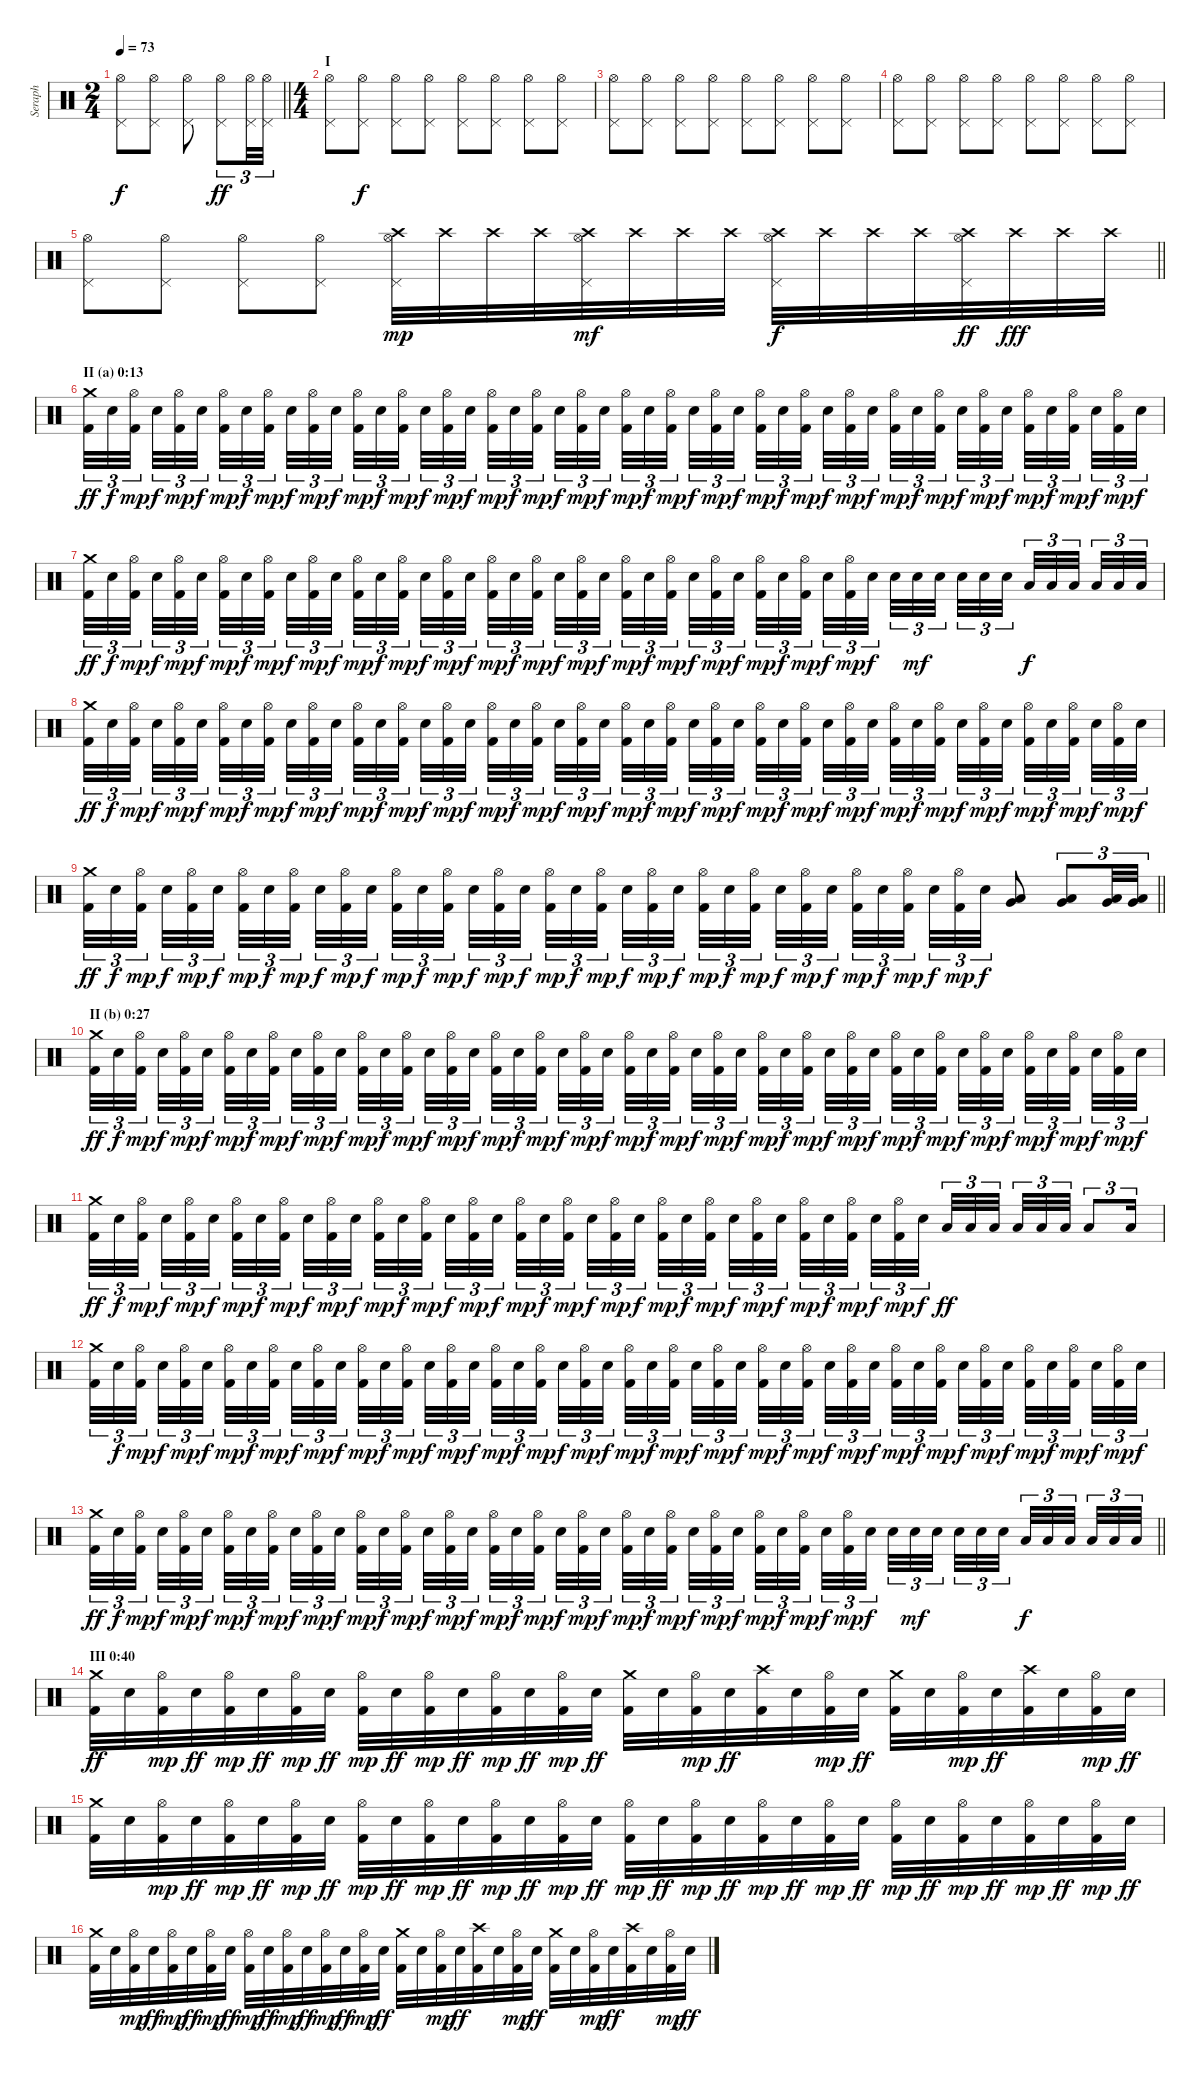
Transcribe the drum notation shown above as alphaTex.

\track ("Seraph" "Seraph") {instrument percussion}
\staff {score}
\articulation defaults
\ts (2 4)
\tempo 73
\clef neutral
\barLineRight lightlight
\ks c
("Pedal Hi-Hat (hit)" "Hi-Hat (open)").8{dy f} ("Pedal Hi-Hat (hit)" "Hi-Hat (open)").8 ("Pedal Hi-Hat (hit)" "Hi-Hat (open)").8 ("Pedal Hi-Hat (hit)" "Hi-Hat (open)").8{tu (3 2) dy ff} ("Pedal Hi-Hat (hit)" "Hi-Hat (open)").32{tu (3 2)} ("Pedal Hi-Hat (hit)" "Hi-Hat (open)").32{tu (3 2)} |
\ts (4 4)
\section ("" "I")
("Pedal Hi-Hat (hit)" "Hi-Hat (open)").8 ("Pedal Hi-Hat (hit)" "Hi-Hat (open)").8{dy f} ("Pedal Hi-Hat (hit)" "Hi-Hat (open)").8 ("Pedal Hi-Hat (hit)" "Hi-Hat (open)").8 ("Pedal Hi-Hat (hit)" "Hi-Hat (open)").8 ("Pedal Hi-Hat (hit)" "Hi-Hat (open)").8 ("Pedal Hi-Hat (hit)" "Hi-Hat (open)").8 ("Pedal Hi-Hat (hit)" "Hi-Hat (open)").8 |
("Pedal Hi-Hat (hit)" "Hi-Hat (open)").8 ("Pedal Hi-Hat (hit)" "Hi-Hat (open)").8 ("Pedal Hi-Hat (hit)" "Hi-Hat (open)").8 ("Pedal Hi-Hat (hit)" "Hi-Hat (open)").8 ("Pedal Hi-Hat (hit)" "Hi-Hat (open)").8 ("Pedal Hi-Hat (hit)" "Hi-Hat (open)").8 ("Pedal Hi-Hat (hit)" "Hi-Hat (open)").8 ("Pedal Hi-Hat (hit)" "Hi-Hat (open)").8 |
("Pedal Hi-Hat (hit)" "Hi-Hat (open)").8 ("Pedal Hi-Hat (hit)" "Hi-Hat (open)").8 ("Pedal Hi-Hat (hit)" "Hi-Hat (open)").8 ("Pedal Hi-Hat (hit)" "Hi-Hat (open)").8 ("Pedal Hi-Hat (hit)" "Hi-Hat (open)").8 ("Pedal Hi-Hat (hit)" "Hi-Hat (open)").8 ("Pedal Hi-Hat (hit)" "Hi-Hat (open)").8 ("Pedal Hi-Hat (hit)" "Hi-Hat (open)").8 |
\barLineRight lightlight
("Pedal Hi-Hat (hit)" "Hi-Hat (open)").8 ("Pedal Hi-Hat (hit)" "Hi-Hat (open)").8 ("Pedal Hi-Hat (hit)" "Hi-Hat (open)").8 ("Pedal Hi-Hat (hit)" "Hi-Hat (open)").8 ("Pedal Hi-Hat (hit)" "Hi-Hat (open)" "Crash high (hit)").32{dy mp} "Crash high (hit)".32 "Crash high (hit)".32 "Crash high (hit)".32 ("Pedal Hi-Hat (hit)" "Hi-Hat (open)" "Crash high (hit)").32{dy mf} "Crash high (hit)".32 "Crash high (hit)".32 "Crash high (hit)".32 ("Pedal Hi-Hat (hit)" "Hi-Hat (open)" "Crash high (hit)").32{dy f} "Crash high (hit)".32 "Crash high (hit)".32 "Crash high (hit)".32 ("Pedal Hi-Hat (hit)" "Hi-Hat (open)" "Crash high (hit)").32{dy ff} "Crash high (hit)".32{dy fff} "Crash high (hit)".32 "Crash high (hit)".32 |
\section ("" "II (a) 0:13")
("Kick (hit) 2" "Crash medium (hit)").32{tu (3 2) dy ff} "Electric Snare (hit)".32{tu (3 2) dy f} ("Kick (hit) 2" "Hi-Hat (open)").32{tu (3 2) dy mp beam splitsecondary} "Electric Snare (hit)".32{tu (3 2) dy f} ("Kick (hit) 2" "Hi-Hat (open)").32{tu (3 2) dy mp} "Electric Snare (hit)".32{tu (3 2) dy f beam splitsecondary} ("Kick (hit) 2" "Hi-Hat (open)").32{tu (3 2) dy mp} "Electric Snare (hit)".32{tu (3 2) dy f} ("Kick (hit) 2" "Hi-Hat (open)").32{tu (3 2) dy mp beam splitsecondary} "Electric Snare (hit)".32{tu (3 2) dy f} ("Kick (hit) 2" "Hi-Hat (open)").32{tu (3 2) dy mp} "Electric Snare (hit)".32{tu (3 2) dy f} ("Kick (hit) 2" "Hi-Hat (open)").32{tu (3 2) dy mp} "Electric Snare (hit)".32{tu (3 2) dy f} ("Kick (hit) 2" "Hi-Hat (open)").32{tu (3 2) dy mp beam splitsecondary} "Electric Snare (hit)".32{tu (3 2) dy f} ("Kick (hit) 2" "Hi-Hat (open)").32{tu (3 2) dy mp} "Electric Snare (hit)".32{tu (3 2) dy f beam splitsecondary} ("Kick (hit) 2" "Hi-Hat (open)").32{tu (3 2) dy mp} "Electric Snare (hit)".32{tu (3 2) dy f} ("Kick (hit) 2" "Hi-Hat (open)").32{tu (3 2) dy mp beam splitsecondary} "Electric Snare (hit)".32{tu (3 2) dy f} ("Kick (hit) 2" "Hi-Hat (open)").32{tu (3 2) dy mp} "Electric Snare (hit)".32{tu (3 2) dy f} ("Kick (hit) 2" "Hi-Hat (open)").32{tu (3 2) dy mp} "Electric Snare (hit)".32{tu (3 2) dy f} ("Kick (hit) 2" "Hi-Hat (open)").32{tu (3 2) dy mp beam splitsecondary} "Electric Snare (hit)".32{tu (3 2) dy f} ("Kick (hit) 2" "Hi-Hat (open)").32{tu (3 2) dy mp} "Electric Snare (hit)".32{tu (3 2) dy f beam splitsecondary} ("Kick (hit) 2" "Hi-Hat (open)").32{tu (3 2) dy mp} "Electric Snare (hit)".32{tu (3 2) dy f} ("Kick (hit) 2" "Hi-Hat (open)").32{tu (3 2) dy mp beam splitsecondary} "Electric Snare (hit)".32{tu (3 2) dy f} ("Kick (hit) 2" "Hi-Hat (open)").32{tu (3 2) dy mp} "Electric Snare (hit)".32{tu (3 2) dy f} ("Kick (hit) 2" "Hi-Hat (open)").32{tu (3 2) dy mp} "Electric Snare (hit)".32{tu (3 2) dy f} ("Kick (hit) 2" "Hi-Hat (open)").32{tu (3 2) dy mp beam splitsecondary} "Electric Snare (hit)".32{tu (3 2) dy f} ("Kick (hit) 2" "Hi-Hat (open)").32{tu (3 2) dy mp} "Electric Snare (hit)".32{tu (3 2) dy f beam splitsecondary} ("Kick (hit) 2" "Hi-Hat (open)").32{tu (3 2) dy mp} "Electric Snare (hit)".32{tu (3 2) dy f} ("Kick (hit) 2" "Hi-Hat (open)").32{tu (3 2) dy mp beam splitsecondary} "Electric Snare (hit)".32{tu (3 2) dy f} ("Kick (hit) 2" "Hi-Hat (open)").32{tu (3 2) dy mp} "Electric Snare (hit)".32{tu (3 2) dy f} |
("Kick (hit) 2" "Crash medium (hit)").32{tu (3 2) dy ff} "Electric Snare (hit)".32{tu (3 2) dy f} ("Kick (hit) 2" "Hi-Hat (open)").32{tu (3 2) dy mp beam splitsecondary} "Electric Snare (hit)".32{tu (3 2) dy f} ("Kick (hit) 2" "Hi-Hat (open)").32{tu (3 2) dy mp} "Electric Snare (hit)".32{tu (3 2) dy f beam splitsecondary} ("Kick (hit) 2" "Hi-Hat (open)").32{tu (3 2) dy mp} "Electric Snare (hit)".32{tu (3 2) dy f} ("Kick (hit) 2" "Hi-Hat (open)").32{tu (3 2) dy mp beam splitsecondary} "Electric Snare (hit)".32{tu (3 2) dy f} ("Kick (hit) 2" "Hi-Hat (open)").32{tu (3 2) dy mp} "Electric Snare (hit)".32{tu (3 2) dy f} ("Kick (hit) 2" "Hi-Hat (open)").32{tu (3 2) dy mp} "Electric Snare (hit)".32{tu (3 2) dy f} ("Kick (hit) 2" "Hi-Hat (open)").32{tu (3 2) dy mp beam splitsecondary} "Electric Snare (hit)".32{tu (3 2) dy f} ("Kick (hit) 2" "Hi-Hat (open)").32{tu (3 2) dy mp} "Electric Snare (hit)".32{tu (3 2) dy f beam splitsecondary} ("Kick (hit) 2" "Hi-Hat (open)").32{tu (3 2) dy mp} "Electric Snare (hit)".32{tu (3 2) dy f} ("Kick (hit) 2" "Hi-Hat (open)").32{tu (3 2) dy mp beam splitsecondary} "Electric Snare (hit)".32{tu (3 2) dy f} ("Kick (hit) 2" "Hi-Hat (open)").32{tu (3 2) dy mp} "Electric Snare (hit)".32{tu (3 2) dy f} ("Kick (hit) 2" "Hi-Hat (open)").32{tu (3 2) dy mp} "Electric Snare (hit)".32{tu (3 2) dy f} ("Kick (hit) 2" "Hi-Hat (open)").32{tu (3 2) dy mp beam splitsecondary} "Electric Snare (hit)".32{tu (3 2) dy f} ("Kick (hit) 2" "Hi-Hat (open)").32{tu (3 2) dy mp} "Electric Snare (hit)".32{tu (3 2) dy f beam splitsecondary} ("Kick (hit) 2" "Hi-Hat (open)").32{tu (3 2) dy mp} "Electric Snare (hit)".32{tu (3 2) dy f} ("Kick (hit) 2" "Hi-Hat (open)").32{tu (3 2) dy mp beam splitsecondary} "Electric Snare (hit)".32{tu (3 2) dy f} ("Kick (hit) 2" "Hi-Hat (open)").32{tu (3 2) dy mp} "Electric Snare (hit)".32{tu (3 2) dy f} "Electric Snare (hit)".32{tu (3 2)} "Electric Snare (hit)".32{tu (3 2) dy mf} "Electric Snare (hit)".32{tu (3 2) beam splitsecondary} "Electric Snare (hit)".32{tu (3 2)} "Electric Snare (hit)".32{tu (3 2)} "Electric Snare (hit)".32{tu (3 2) beam splitsecondary} "Low Tom (hit)".32{tu (3 2) dy f} "Low Tom (hit)".32{tu (3 2)} "Low Tom (hit)".32{tu (3 2) beam splitsecondary} "Low Tom (hit)".32{tu (3 2)} "Low Tom (hit)".32{tu (3 2)} "Low Tom (hit)".32{tu (3 2)} |
("Kick (hit) 2" "Crash medium (hit)").32{tu (3 2) dy ff} "Electric Snare (hit)".32{tu (3 2) dy f} ("Kick (hit) 2" "Hi-Hat (open)").32{tu (3 2) dy mp beam splitsecondary} "Electric Snare (hit)".32{tu (3 2) dy f} ("Kick (hit) 2" "Hi-Hat (open)").32{tu (3 2) dy mp} "Electric Snare (hit)".32{tu (3 2) dy f beam splitsecondary} ("Kick (hit) 2" "Hi-Hat (open)").32{tu (3 2) dy mp} "Electric Snare (hit)".32{tu (3 2) dy f} ("Kick (hit) 2" "Hi-Hat (open)").32{tu (3 2) dy mp beam splitsecondary} "Electric Snare (hit)".32{tu (3 2) dy f} ("Kick (hit) 2" "Hi-Hat (open)").32{tu (3 2) dy mp} "Electric Snare (hit)".32{tu (3 2) dy f} ("Kick (hit) 2" "Hi-Hat (open)").32{tu (3 2) dy mp} "Electric Snare (hit)".32{tu (3 2) dy f} ("Kick (hit) 2" "Hi-Hat (open)").32{tu (3 2) dy mp beam splitsecondary} "Electric Snare (hit)".32{tu (3 2) dy f} ("Kick (hit) 2" "Hi-Hat (open)").32{tu (3 2) dy mp} "Electric Snare (hit)".32{tu (3 2) dy f beam splitsecondary} ("Kick (hit) 2" "Hi-Hat (open)").32{tu (3 2) dy mp} "Electric Snare (hit)".32{tu (3 2) dy f} ("Kick (hit) 2" "Hi-Hat (open)").32{tu (3 2) dy mp beam splitsecondary} "Electric Snare (hit)".32{tu (3 2) dy f} ("Kick (hit) 2" "Hi-Hat (open)").32{tu (3 2) dy mp} "Electric Snare (hit)".32{tu (3 2) dy f} ("Kick (hit) 2" "Hi-Hat (open)").32{tu (3 2) dy mp} "Electric Snare (hit)".32{tu (3 2) dy f} ("Kick (hit) 2" "Hi-Hat (open)").32{tu (3 2) dy mp beam splitsecondary} "Electric Snare (hit)".32{tu (3 2) dy f} ("Kick (hit) 2" "Hi-Hat (open)").32{tu (3 2) dy mp} "Electric Snare (hit)".32{tu (3 2) dy f beam splitsecondary} ("Kick (hit) 2" "Hi-Hat (open)").32{tu (3 2) dy mp} "Electric Snare (hit)".32{tu (3 2) dy f} ("Kick (hit) 2" "Hi-Hat (open)").32{tu (3 2) dy mp beam splitsecondary} "Electric Snare (hit)".32{tu (3 2) dy f} ("Kick (hit) 2" "Hi-Hat (open)").32{tu (3 2) dy mp} "Electric Snare (hit)".32{tu (3 2) dy f} ("Kick (hit) 2" "Hi-Hat (open)").32{tu (3 2) dy mp} "Electric Snare (hit)".32{tu (3 2) dy f} ("Kick (hit) 2" "Hi-Hat (open)").32{tu (3 2) dy mp beam splitsecondary} "Electric Snare (hit)".32{tu (3 2) dy f} ("Kick (hit) 2" "Hi-Hat (open)").32{tu (3 2) dy mp} "Electric Snare (hit)".32{tu (3 2) dy f beam splitsecondary} ("Kick (hit) 2" "Hi-Hat (open)").32{tu (3 2) dy mp} "Electric Snare (hit)".32{tu (3 2) dy f} ("Kick (hit) 2" "Hi-Hat (open)").32{tu (3 2) dy mp beam splitsecondary} "Electric Snare (hit)".32{tu (3 2) dy f} ("Kick (hit) 2" "Hi-Hat (open)").32{tu (3 2) dy mp} "Electric Snare (hit)".32{tu (3 2) dy f} |
\barLineRight lightlight
("Kick (hit) 2" "Crash medium (hit)").32{tu (3 2) dy ff} "Electric Snare (hit)".32{tu (3 2) dy f} ("Kick (hit) 2" "Hi-Hat (open)").32{tu (3 2) dy mp beam splitsecondary} "Electric Snare (hit)".32{tu (3 2) dy f} ("Kick (hit) 2" "Hi-Hat (open)").32{tu (3 2) dy mp} "Electric Snare (hit)".32{tu (3 2) dy f beam splitsecondary} ("Kick (hit) 2" "Hi-Hat (open)").32{tu (3 2) dy mp} "Electric Snare (hit)".32{tu (3 2) dy f} ("Kick (hit) 2" "Hi-Hat (open)").32{tu (3 2) dy mp beam splitsecondary} "Electric Snare (hit)".32{tu (3 2) dy f} ("Kick (hit) 2" "Hi-Hat (open)").32{tu (3 2) dy mp} "Electric Snare (hit)".32{tu (3 2) dy f} ("Kick (hit) 2" "Hi-Hat (open)").32{tu (3 2) dy mp} "Electric Snare (hit)".32{tu (3 2) dy f} ("Kick (hit) 2" "Hi-Hat (open)").32{tu (3 2) dy mp beam splitsecondary} "Electric Snare (hit)".32{tu (3 2) dy f} ("Kick (hit) 2" "Hi-Hat (open)").32{tu (3 2) dy mp} "Electric Snare (hit)".32{tu (3 2) dy f beam splitsecondary} ("Kick (hit) 2" "Hi-Hat (open)").32{tu (3 2) dy mp} "Electric Snare (hit)".32{tu (3 2) dy f} ("Kick (hit) 2" "Hi-Hat (open)").32{tu (3 2) dy mp beam splitsecondary} "Electric Snare (hit)".32{tu (3 2) dy f} ("Kick (hit) 2" "Hi-Hat (open)").32{tu (3 2) dy mp} "Electric Snare (hit)".32{tu (3 2) dy f} ("Kick (hit) 2" "Hi-Hat (open)").32{tu (3 2) dy mp} "Electric Snare (hit)".32{tu (3 2) dy f} ("Kick (hit) 2" "Hi-Hat (open)").32{tu (3 2) dy mp beam splitsecondary} "Electric Snare (hit)".32{tu (3 2) dy f} ("Kick (hit) 2" "Hi-Hat (open)").32{tu (3 2) dy mp} "Electric Snare (hit)".32{tu (3 2) dy f beam splitsecondary} ("Kick (hit) 2" "Hi-Hat (open)").32{tu (3 2) dy mp} "Electric Snare (hit)".32{tu (3 2) dy f} ("Kick (hit) 2" "Hi-Hat (open)").32{tu (3 2) dy mp beam splitsecondary} "Electric Snare (hit)".32{tu (3 2) dy f} ("Kick (hit) 2" "Hi-Hat (open)").32{tu (3 2) dy mp} "Electric Snare (hit)".32{tu (3 2) dy f} ("Low Tom (hit)" "Very Low Tom (hit)").8 ("Low Tom (hit)" "Very Low Tom (hit)").8{tu (3 2)} ("Very Low Tom (hit)" "Low Floor Tom (hit)").32{tu (3 2)} ("Very Low Tom (hit)" "Low Floor Tom (hit)").32{tu (3 2)} |
\section ("" "II (b) 0:27")
("Kick (hit) 2" "Crash medium (hit)").32{tu (3 2) dy ff} "Electric Snare (hit)".32{tu (3 2) dy f} ("Kick (hit) 2" "Hi-Hat (open)").32{tu (3 2) dy mp beam splitsecondary} "Electric Snare (hit)".32{tu (3 2) dy f} ("Kick (hit) 2" "Hi-Hat (open)").32{tu (3 2) dy mp} "Electric Snare (hit)".32{tu (3 2) dy f beam splitsecondary} ("Kick (hit) 2" "Hi-Hat (open)").32{tu (3 2) dy mp} "Electric Snare (hit)".32{tu (3 2) dy f} ("Kick (hit) 2" "Hi-Hat (open)").32{tu (3 2) dy mp beam splitsecondary} "Electric Snare (hit)".32{tu (3 2) dy f} ("Kick (hit) 2" "Hi-Hat (open)").32{tu (3 2) dy mp} "Electric Snare (hit)".32{tu (3 2) dy f} ("Kick (hit) 2" "Hi-Hat (open)").32{tu (3 2) dy mp} "Electric Snare (hit)".32{tu (3 2) dy f} ("Kick (hit) 2" "Hi-Hat (open)").32{tu (3 2) dy mp beam splitsecondary} "Electric Snare (hit)".32{tu (3 2) dy f} ("Kick (hit) 2" "Hi-Hat (open)").32{tu (3 2) dy mp} "Electric Snare (hit)".32{tu (3 2) dy f beam splitsecondary} ("Kick (hit) 2" "Hi-Hat (open)").32{tu (3 2) dy mp} "Electric Snare (hit)".32{tu (3 2) dy f} ("Kick (hit) 2" "Hi-Hat (open)").32{tu (3 2) dy mp beam splitsecondary} "Electric Snare (hit)".32{tu (3 2) dy f} ("Kick (hit) 2" "Hi-Hat (open)").32{tu (3 2) dy mp} "Electric Snare (hit)".32{tu (3 2) dy f} ("Kick (hit) 2" "Hi-Hat (open)").32{tu (3 2) dy mp} "Electric Snare (hit)".32{tu (3 2) dy f} ("Kick (hit) 2" "Hi-Hat (open)").32{tu (3 2) dy mp beam splitsecondary} "Electric Snare (hit)".32{tu (3 2) dy f} ("Kick (hit) 2" "Hi-Hat (open)").32{tu (3 2) dy mp} "Electric Snare (hit)".32{tu (3 2) dy f beam splitsecondary} ("Kick (hit) 2" "Hi-Hat (open)").32{tu (3 2) dy mp} "Electric Snare (hit)".32{tu (3 2) dy f} ("Kick (hit) 2" "Hi-Hat (open)").32{tu (3 2) dy mp beam splitsecondary} "Electric Snare (hit)".32{tu (3 2) dy f} ("Kick (hit) 2" "Hi-Hat (open)").32{tu (3 2) dy mp} "Electric Snare (hit)".32{tu (3 2) dy f} ("Kick (hit) 2" "Hi-Hat (open)").32{tu (3 2) dy mp} "Electric Snare (hit)".32{tu (3 2) dy f} ("Kick (hit) 2" "Hi-Hat (open)").32{tu (3 2) dy mp beam splitsecondary} "Electric Snare (hit)".32{tu (3 2) dy f} ("Kick (hit) 2" "Hi-Hat (open)").32{tu (3 2) dy mp} "Electric Snare (hit)".32{tu (3 2) dy f beam splitsecondary} ("Kick (hit) 2" "Hi-Hat (open)").32{tu (3 2) dy mp} "Electric Snare (hit)".32{tu (3 2) dy f} ("Kick (hit) 2" "Hi-Hat (open)").32{tu (3 2) dy mp beam splitsecondary} "Electric Snare (hit)".32{tu (3 2) dy f} ("Kick (hit) 2" "Hi-Hat (open)").32{tu (3 2) dy mp} "Electric Snare (hit)".32{tu (3 2) dy f} |
("Kick (hit) 2" "Crash medium (hit)").32{tu (3 2) dy ff} "Electric Snare (hit)".32{tu (3 2) dy f} ("Kick (hit) 2" "Hi-Hat (open)").32{tu (3 2) dy mp beam splitsecondary} "Electric Snare (hit)".32{tu (3 2) dy f} ("Kick (hit) 2" "Hi-Hat (open)").32{tu (3 2) dy mp} "Electric Snare (hit)".32{tu (3 2) dy f beam splitsecondary} ("Kick (hit) 2" "Hi-Hat (open)").32{tu (3 2) dy mp} "Electric Snare (hit)".32{tu (3 2) dy f} ("Kick (hit) 2" "Hi-Hat (open)").32{tu (3 2) dy mp beam splitsecondary} "Electric Snare (hit)".32{tu (3 2) dy f} ("Kick (hit) 2" "Hi-Hat (open)").32{tu (3 2) dy mp} "Electric Snare (hit)".32{tu (3 2) dy f} ("Kick (hit) 2" "Hi-Hat (open)").32{tu (3 2) dy mp} "Electric Snare (hit)".32{tu (3 2) dy f} ("Kick (hit) 2" "Hi-Hat (open)").32{tu (3 2) dy mp beam splitsecondary} "Electric Snare (hit)".32{tu (3 2) dy f} ("Kick (hit) 2" "Hi-Hat (open)").32{tu (3 2) dy mp} "Electric Snare (hit)".32{tu (3 2) dy f beam splitsecondary} ("Kick (hit) 2" "Hi-Hat (open)").32{tu (3 2) dy mp} "Electric Snare (hit)".32{tu (3 2) dy f} ("Kick (hit) 2" "Hi-Hat (open)").32{tu (3 2) dy mp beam splitsecondary} "Electric Snare (hit)".32{tu (3 2) dy f} ("Kick (hit) 2" "Hi-Hat (open)").32{tu (3 2) dy mp} "Electric Snare (hit)".32{tu (3 2) dy f} ("Kick (hit) 2" "Hi-Hat (open)").32{tu (3 2) dy mp} "Electric Snare (hit)".32{tu (3 2) dy f} ("Kick (hit) 2" "Hi-Hat (open)").32{tu (3 2) dy mp beam splitsecondary} "Electric Snare (hit)".32{tu (3 2) dy f} ("Kick (hit) 2" "Hi-Hat (open)").32{tu (3 2) dy mp} "Electric Snare (hit)".32{tu (3 2) dy f beam splitsecondary} ("Kick (hit) 2" "Hi-Hat (open)").32{tu (3 2) dy mp} "Electric Snare (hit)".32{tu (3 2) dy f} ("Kick (hit) 2" "Hi-Hat (open)").32{tu (3 2) dy mp beam splitsecondary} "Electric Snare (hit)".32{tu (3 2) dy f} ("Kick (hit) 2" "Hi-Hat (open)").32{tu (3 2) dy mp} "Electric Snare (hit)".32{tu (3 2) dy f} "Low Tom (hit)".32{tu (3 2) dy ff} "Low Tom (hit)".32{tu (3 2)} "Low Tom (hit)".32{tu (3 2) beam splitsecondary} "Low Tom (hit)".32{tu (3 2)} "Low Tom (hit)".32{tu (3 2)} "Low Tom (hit)".32{tu (3 2)} "Low Floor Tom (hit)".8{tu (3 2)} "Low Tom (hit)".16{tu (3 2)} |
("Kick (hit) 2" "Crash medium (hit)").32{tu (3 2)} "Electric Snare (hit)".32{tu (3 2) dy f} ("Kick (hit) 2" "Hi-Hat (open)").32{tu (3 2) dy mp beam splitsecondary} "Electric Snare (hit)".32{tu (3 2) dy f} ("Kick (hit) 2" "Hi-Hat (open)").32{tu (3 2) dy mp} "Electric Snare (hit)".32{tu (3 2) dy f beam splitsecondary} ("Kick (hit) 2" "Hi-Hat (open)").32{tu (3 2) dy mp} "Electric Snare (hit)".32{tu (3 2) dy f} ("Kick (hit) 2" "Hi-Hat (open)").32{tu (3 2) dy mp beam splitsecondary} "Electric Snare (hit)".32{tu (3 2) dy f} ("Kick (hit) 2" "Hi-Hat (open)").32{tu (3 2) dy mp} "Electric Snare (hit)".32{tu (3 2) dy f} ("Kick (hit) 2" "Hi-Hat (open)").32{tu (3 2) dy mp} "Electric Snare (hit)".32{tu (3 2) dy f} ("Kick (hit) 2" "Hi-Hat (open)").32{tu (3 2) dy mp beam splitsecondary} "Electric Snare (hit)".32{tu (3 2) dy f} ("Kick (hit) 2" "Hi-Hat (open)").32{tu (3 2) dy mp} "Electric Snare (hit)".32{tu (3 2) dy f beam splitsecondary} ("Kick (hit) 2" "Hi-Hat (open)").32{tu (3 2) dy mp} "Electric Snare (hit)".32{tu (3 2) dy f} ("Kick (hit) 2" "Hi-Hat (open)").32{tu (3 2) dy mp beam splitsecondary} "Electric Snare (hit)".32{tu (3 2) dy f} ("Kick (hit) 2" "Hi-Hat (open)").32{tu (3 2) dy mp} "Electric Snare (hit)".32{tu (3 2) dy f} ("Kick (hit) 2" "Hi-Hat (open)").32{tu (3 2) dy mp} "Electric Snare (hit)".32{tu (3 2) dy f} ("Kick (hit) 2" "Hi-Hat (open)").32{tu (3 2) dy mp beam splitsecondary} "Electric Snare (hit)".32{tu (3 2) dy f} ("Kick (hit) 2" "Hi-Hat (open)").32{tu (3 2) dy mp} "Electric Snare (hit)".32{tu (3 2) dy f beam splitsecondary} ("Kick (hit) 2" "Hi-Hat (open)").32{tu (3 2) dy mp} "Electric Snare (hit)".32{tu (3 2) dy f} ("Kick (hit) 2" "Hi-Hat (open)").32{tu (3 2) dy mp beam splitsecondary} "Electric Snare (hit)".32{tu (3 2) dy f} ("Kick (hit) 2" "Hi-Hat (open)").32{tu (3 2) dy mp} "Electric Snare (hit)".32{tu (3 2) dy f} ("Kick (hit) 2" "Hi-Hat (open)").32{tu (3 2) dy mp} "Electric Snare (hit)".32{tu (3 2) dy f} ("Kick (hit) 2" "Hi-Hat (open)").32{tu (3 2) dy mp beam splitsecondary} "Electric Snare (hit)".32{tu (3 2) dy f} ("Kick (hit) 2" "Hi-Hat (open)").32{tu (3 2) dy mp} "Electric Snare (hit)".32{tu (3 2) dy f beam splitsecondary} ("Kick (hit) 2" "Hi-Hat (open)").32{tu (3 2) dy mp} "Electric Snare (hit)".32{tu (3 2) dy f} ("Kick (hit) 2" "Hi-Hat (open)").32{tu (3 2) dy mp beam splitsecondary} "Electric Snare (hit)".32{tu (3 2) dy f} ("Kick (hit) 2" "Hi-Hat (open)").32{tu (3 2) dy mp} "Electric Snare (hit)".32{tu (3 2) dy f} |
\barLineRight lightlight
("Kick (hit) 2" "Crash medium (hit)").32{tu (3 2) dy ff} "Electric Snare (hit)".32{tu (3 2) dy f} ("Kick (hit) 2" "Hi-Hat (open)").32{tu (3 2) dy mp beam splitsecondary} "Electric Snare (hit)".32{tu (3 2) dy f} ("Kick (hit) 2" "Hi-Hat (open)").32{tu (3 2) dy mp} "Electric Snare (hit)".32{tu (3 2) dy f beam splitsecondary} ("Kick (hit) 2" "Hi-Hat (open)").32{tu (3 2) dy mp} "Electric Snare (hit)".32{tu (3 2) dy f} ("Kick (hit) 2" "Hi-Hat (open)").32{tu (3 2) dy mp beam splitsecondary} "Electric Snare (hit)".32{tu (3 2) dy f} ("Kick (hit) 2" "Hi-Hat (open)").32{tu (3 2) dy mp} "Electric Snare (hit)".32{tu (3 2) dy f} ("Kick (hit) 2" "Hi-Hat (open)").32{tu (3 2) dy mp} "Electric Snare (hit)".32{tu (3 2) dy f} ("Kick (hit) 2" "Hi-Hat (open)").32{tu (3 2) dy mp beam splitsecondary} "Electric Snare (hit)".32{tu (3 2) dy f} ("Kick (hit) 2" "Hi-Hat (open)").32{tu (3 2) dy mp} "Electric Snare (hit)".32{tu (3 2) dy f beam splitsecondary} ("Kick (hit) 2" "Hi-Hat (open)").32{tu (3 2) dy mp} "Electric Snare (hit)".32{tu (3 2) dy f} ("Kick (hit) 2" "Hi-Hat (open)").32{tu (3 2) dy mp beam splitsecondary} "Electric Snare (hit)".32{tu (3 2) dy f} ("Kick (hit) 2" "Hi-Hat (open)").32{tu (3 2) dy mp} "Electric Snare (hit)".32{tu (3 2) dy f} ("Kick (hit) 2" "Hi-Hat (open)").32{tu (3 2) dy mp} "Electric Snare (hit)".32{tu (3 2) dy f} ("Kick (hit) 2" "Hi-Hat (open)").32{tu (3 2) dy mp beam splitsecondary} "Electric Snare (hit)".32{tu (3 2) dy f} ("Kick (hit) 2" "Hi-Hat (open)").32{tu (3 2) dy mp} "Electric Snare (hit)".32{tu (3 2) dy f beam splitsecondary} ("Kick (hit) 2" "Hi-Hat (open)").32{tu (3 2) dy mp} "Electric Snare (hit)".32{tu (3 2) dy f} ("Kick (hit) 2" "Hi-Hat (open)").32{tu (3 2) dy mp beam splitsecondary} "Electric Snare (hit)".32{tu (3 2) dy f} ("Kick (hit) 2" "Hi-Hat (open)").32{tu (3 2) dy mp} "Electric Snare (hit)".32{tu (3 2) dy f} "Electric Snare (hit)".32{tu (3 2)} "Electric Snare (hit)".32{tu (3 2) dy mf} "Electric Snare (hit)".32{tu (3 2) beam splitsecondary} "Electric Snare (hit)".32{tu (3 2)} "Electric Snare (hit)".32{tu (3 2)} "Electric Snare (hit)".32{tu (3 2) beam splitsecondary} "Low Tom (hit)".32{tu (3 2) dy f} "Low Tom (hit)".32{tu (3 2)} "Low Tom (hit)".32{tu (3 2) beam splitsecondary} "Low Tom (hit)".32{tu (3 2)} "Low Tom (hit)".32{tu (3 2)} "Low Tom (hit)".32{tu (3 2)} |
\section ("" "III 0:40")
("Kick (hit) 2" "Crash medium (hit)").32{dy ff} "Electric Snare (hit)".32 ("Kick (hit) 2" "Hi-Hat (open)").32{dy mp} "Electric Snare (hit)".32{dy ff} ("Kick (hit) 2" "Hi-Hat (open)").32{dy mp} "Electric Snare (hit)".32{dy ff} ("Kick (hit) 2" "Hi-Hat (open)").32{dy mp} "Electric Snare (hit)".32{dy ff} ("Kick (hit) 2" "Hi-Hat (open)").32{dy mp} "Electric Snare (hit)".32{dy ff} ("Kick (hit) 2" "Hi-Hat (open)").32{dy mp} "Electric Snare (hit)".32{dy ff} ("Kick (hit) 2" "Hi-Hat (open)").32{dy mp} "Electric Snare (hit)".32{dy ff} ("Kick (hit) 2" "Hi-Hat (open)").32{dy mp} "Electric Snare (hit)".32{dy ff} ("Kick (hit) 2" "Crash medium (hit)").32 "Electric Snare (hit)".32 ("Kick (hit) 2" "Hi-Hat (open)").32{dy mp} "Electric Snare (hit)".32{dy ff} ("Kick (hit) 2" "Crash high (hit)").32 "Electric Snare (hit)".32 ("Kick (hit) 2" "Hi-Hat (open)").32{dy mp} "Electric Snare (hit)".32{dy ff} ("Kick (hit) 2" "Crash medium (hit)").32 "Electric Snare (hit)".32 ("Kick (hit) 2" "Hi-Hat (open)").32{dy mp} "Electric Snare (hit)".32{dy ff} ("Kick (hit) 2" "Crash high (hit)").32 "Electric Snare (hit)".32 ("Kick (hit) 2" "Hi-Hat (open)").32{dy mp} "Electric Snare (hit)".32{dy ff} |
("Kick (hit) 2" "Crash medium (hit)").32 "Electric Snare (hit)".32 ("Kick (hit) 2" "Hi-Hat (open)").32{dy mp} "Electric Snare (hit)".32{dy ff} ("Kick (hit) 2" "Hi-Hat (open)").32{dy mp} "Electric Snare (hit)".32{dy ff} ("Kick (hit) 2" "Hi-Hat (open)").32{dy mp} "Electric Snare (hit)".32{dy ff} ("Kick (hit) 2" "Hi-Hat (open)").32{dy mp} "Electric Snare (hit)".32{dy ff} ("Kick (hit) 2" "Hi-Hat (open)").32{dy mp} "Electric Snare (hit)".32{dy ff} ("Kick (hit) 2" "Hi-Hat (open)").32{dy mp} "Electric Snare (hit)".32{dy ff} ("Kick (hit) 2" "Hi-Hat (open)").32{dy mp} "Electric Snare (hit)".32{dy ff} ("Kick (hit) 2" "Hi-Hat (open)").32{dy mp} "Electric Snare (hit)".32{dy ff} ("Kick (hit) 2" "Hi-Hat (open)").32{dy mp} "Electric Snare (hit)".32{dy ff} ("Kick (hit) 2" "Hi-Hat (open)").32{dy mp} "Electric Snare (hit)".32{dy ff} ("Kick (hit) 2" "Hi-Hat (open)").32{dy mp} "Electric Snare (hit)".32{dy ff} ("Kick (hit) 2" "Hi-Hat (open)").32{dy mp} "Electric Snare (hit)".32{dy ff} ("Kick (hit) 2" "Hi-Hat (open)").32{dy mp} "Electric Snare (hit)".32{dy ff} ("Kick (hit) 2" "Hi-Hat (open)").32{dy mp} "Electric Snare (hit)".32{dy ff} ("Kick (hit) 2" "Hi-Hat (open)").32{dy mp} "Electric Snare (hit)".32{dy ff} |
("Kick (hit) 2" "Crash medium (hit)").32 "Electric Snare (hit)".32 ("Kick (hit) 2" "Hi-Hat (open)").32{dy mp} "Electric Snare (hit)".32{dy ff} ("Kick (hit) 2" "Hi-Hat (open)").32{dy mp} "Electric Snare (hit)".32{dy ff} ("Kick (hit) 2" "Hi-Hat (open)").32{dy mp} "Electric Snare (hit)".32{dy ff} ("Kick (hit) 2" "Hi-Hat (open)").32{dy mp} "Electric Snare (hit)".32{dy ff} ("Kick (hit) 2" "Hi-Hat (open)").32{dy mp} "Electric Snare (hit)".32{dy ff} ("Kick (hit) 2" "Hi-Hat (open)").32{dy mp} "Electric Snare (hit)".32{dy ff} ("Kick (hit) 2" "Hi-Hat (open)").32{dy mp} "Electric Snare (hit)".32{dy ff} ("Kick (hit) 2" "Crash medium (hit)").32 "Electric Snare (hit)".32 ("Kick (hit) 2" "Hi-Hat (open)").32{dy mp} "Electric Snare (hit)".32{dy ff} ("Kick (hit) 2" "Crash high (hit)").32 "Electric Snare (hit)".32 ("Kick (hit) 2" "Hi-Hat (open)").32{dy mp} "Electric Snare (hit)".32{dy ff} ("Kick (hit) 2" "Crash medium (hit)").32 "Electric Snare (hit)".32 ("Kick (hit) 2" "Hi-Hat (open)").32{dy mp} "Electric Snare (hit)".32{dy ff} ("Kick (hit) 2" "Crash high (hit)").32 "Electric Snare (hit)".32 ("Kick (hit) 2" "Hi-Hat (open)").32{dy mp} "Electric Snare (hit)".32{dy ff}
